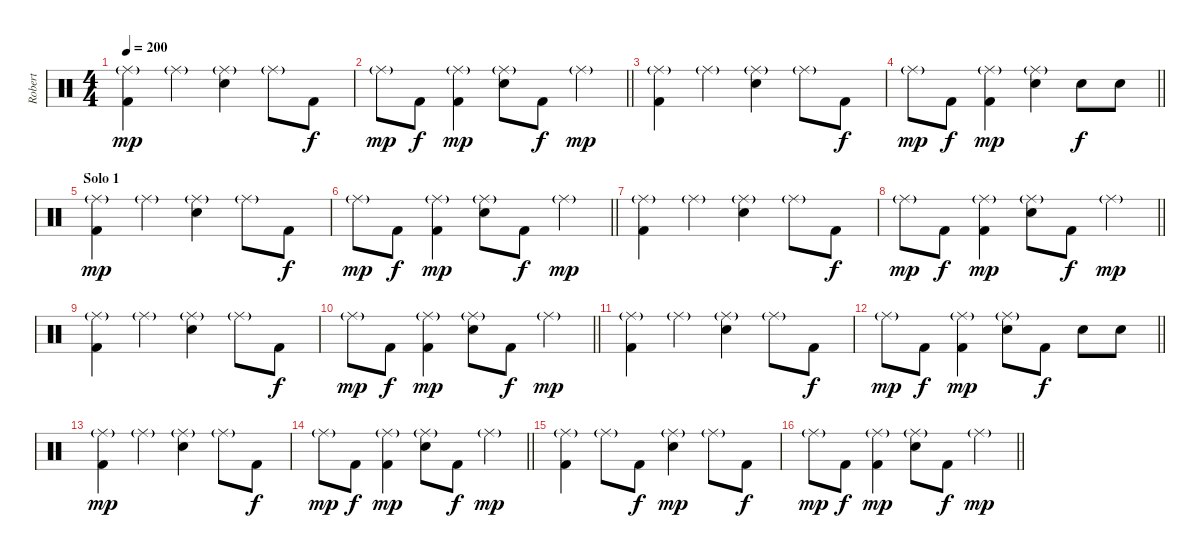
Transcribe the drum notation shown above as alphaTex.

\track ("Robert" "Robert") {instrument percussion}
\staff {score}
\articulation defaults
\ts (4 4)
\tempo 200
\clef neutral
\ks c
("Ride (middle)"{g} "Kick (hit) 2").4{dy mp} "Ride (middle)"{g}.4 ("Ride (middle)"{g} "Electric Snare (hit)").4 "Ride (middle)"{g}.8 "Kick (hit) 2".8{dy f} |
\barLineRight lightlight "Ride (middle)"{g}.8{dy mp} "Kick (hit) 2".8{dy f}
("Ride (middle)"{g} "Kick (hit) 2").4{dy mp} ("Ride (middle)"{g} "Electric Snare (hit)").8 "Kick (hit) 2".8{dy f} "Ride (middle)"{g}.4{dy mp} |
("Ride (middle)"{g} "Kick (hit) 2").4 "Ride (middle)"{g}.4 ("Ride (middle)"{g} "Electric Snare (hit)").4 "Ride (middle)"{g}.8 "Kick (hit) 2".8{dy f} |
\barLineRight lightlight "Ride (middle)"{g}.8{dy mp} "Kick (hit) 2".8{dy f}
("Ride (middle)"{g} "Kick (hit) 2").4{dy mp} ("Ride (middle)"{g} "Electric Snare (hit)").4 "Electric Snare (hit)".8{dy f} "Electric Snare (hit)".8 |
\section ("" "Solo 1")
("Ride (middle)"{g} "Kick (hit) 2").4{dy mp} "Ride (middle)"{g}.4 ("Ride (middle)"{g} "Electric Snare (hit)").4 "Ride (middle)"{g}.8 "Kick (hit) 2".8{dy f} |
\barLineRight lightlight "Ride (middle)"{g}.8{dy mp} "Kick (hit) 2".8{dy f}
("Ride (middle)"{g} "Kick (hit) 2").4{dy mp} ("Ride (middle)"{g} "Electric Snare (hit)").8 "Kick (hit) 2".8{dy f} "Ride (middle)"{g}.4{dy mp} |
("Ride (middle)"{g} "Kick (hit) 2").4 "Ride (middle)"{g}.4 ("Ride (middle)"{g} "Electric Snare (hit)").4 "Ride (middle)"{g}.8 "Kick (hit) 2".8{dy f} |
\barLineRight lightlight "Ride (middle)"{g}.8{dy mp} "Kick (hit) 2".8{dy f}
("Ride (middle)"{g} "Kick (hit) 2").4{dy mp} ("Ride (middle)"{g} "Electric Snare (hit)").8 "Kick (hit) 2".8{dy f} "Ride (middle)"{g}.4{dy mp} |
("Ride (middle)"{g} "Kick (hit) 2").4 "Ride (middle)"{g}.4 ("Ride (middle)"{g} "Electric Snare (hit)").4 "Ride (middle)"{g}.8 "Kick (hit) 2".8{dy f} |
\barLineRight lightlight "Ride (middle)"{g}.8{dy mp} "Kick (hit) 2".8{dy f}
("Ride (middle)"{g} "Kick (hit) 2").4{dy mp} ("Ride (middle)"{g} "Electric Snare (hit)").8 "Kick (hit) 2".8{dy f} "Ride (middle)"{g}.4{dy mp} |
("Ride (middle)"{g} "Kick (hit) 2").4 "Ride (middle)"{g}.4 ("Ride (middle)"{g} "Electric Snare (hit)").4 "Ride (middle)"{g}.8 "Kick (hit) 2".8{dy f} |
\barLineRight lightlight "Ride (middle)"{g}.8{dy mp} "Kick (hit) 2".8{dy f}
("Ride (middle)"{g} "Kick (hit) 2").4{dy mp} ("Ride (middle)"{g} "Electric Snare (hit)").8 "Kick (hit) 2".8{dy f} "Electric Snare (hit)".8 "Electric Snare (hit)".8 |
("Ride (middle)"{g} "Kick (hit) 2").4{dy mp} "Ride (middle)"{g}.4 ("Ride (middle)"{g} "Electric Snare (hit)").4 "Ride (middle)"{g}.8 "Kick (hit) 2".8{dy f} |
\barLineRight lightlight "Ride (middle)"{g}.8{dy mp} "Kick (hit) 2".8{dy f}
("Ride (middle)"{g} "Kick (hit) 2").4{dy mp} ("Ride (middle)"{g} "Electric Snare (hit)").8 "Kick (hit) 2".8{dy f} "Ride (middle)"{g}.4{dy mp} |
("Ride (middle)"{g} "Kick (hit) 2").4 "Ride (middle)"{g}.8 "Kick (hit) 2".8{dy f} ("Ride (middle)"{g} "Electric Snare (hit)").4{dy mp} "Ride (middle)"{g}.8 "Kick (hit) 2".8{dy f} |
\barLineRight lightlight "Ride (middle)"{g}.8{dy mp} "Kick (hit) 2".8{dy f}
("Ride (middle)"{g} "Kick (hit) 2").4{dy mp} ("Ride (middle)"{g} "Electric Snare (hit)").8 "Kick (hit) 2".8{dy f} "Ride (middle)"{g}.4{dy mp}
